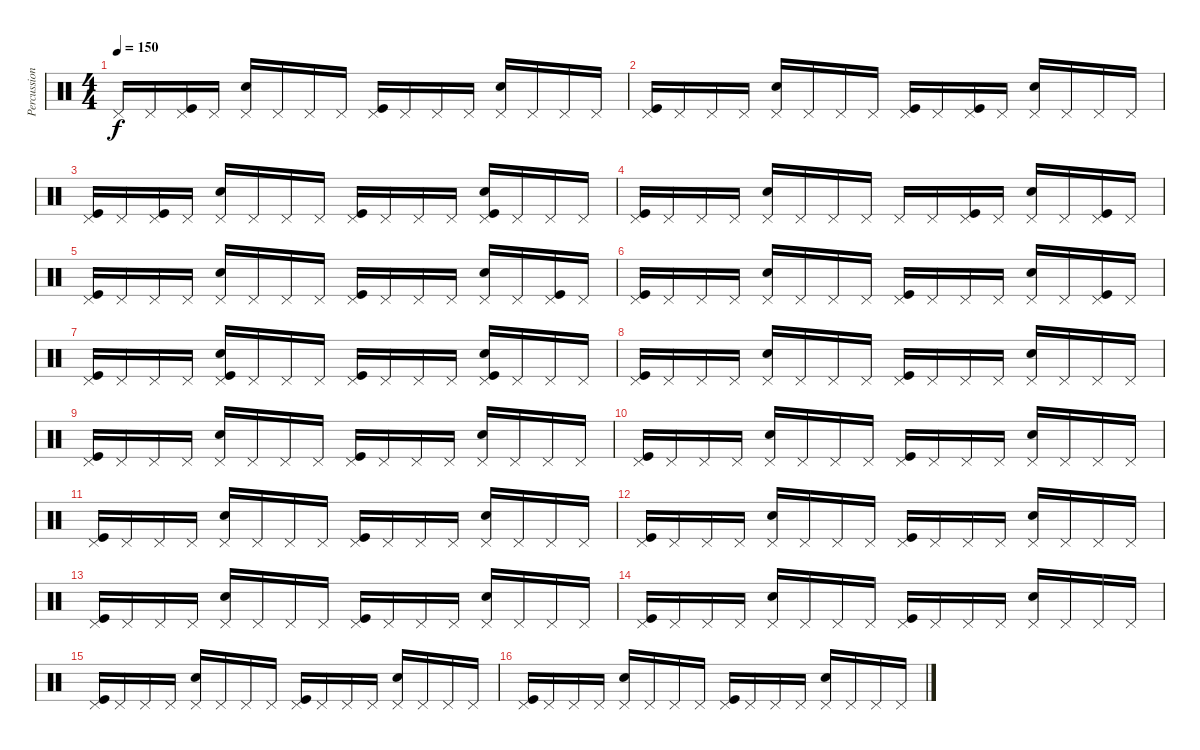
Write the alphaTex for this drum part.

\track ("Percussion" "Percussion") {instrument percussion}
\staff {score}
\articulation defaults
\ts (4 4)
\tempo 150
\clef neutral
\ks c "Pedal Hi-Hat (hit)".16{dy f} "Pedal Hi-Hat (hit)".16
("Pedal Hi-Hat (hit)" "Kick (hit)").16 "Pedal Hi-Hat (hit)".16 ("Pedal Hi-Hat (hit)" "Electric Snare (hit)").16 "Pedal Hi-Hat (hit)".16 "Pedal Hi-Hat (hit)".16 "Pedal Hi-Hat (hit)".16 ("Pedal Hi-Hat (hit)" "Kick (hit)").16 "Pedal Hi-Hat (hit)".16 "Pedal Hi-Hat (hit)".16 "Pedal Hi-Hat (hit)".16 ("Pedal Hi-Hat (hit)" "Electric Snare (hit)").16 "Pedal Hi-Hat (hit)".16 "Pedal Hi-Hat (hit)".16 "Pedal Hi-Hat (hit)".16 |
("Pedal Hi-Hat (hit)" "Kick (hit)").16 "Pedal Hi-Hat (hit)".16 "Pedal Hi-Hat (hit)".16 "Pedal Hi-Hat (hit)".16 ("Pedal Hi-Hat (hit)" "Electric Snare (hit)").16 "Pedal Hi-Hat (hit)".16 "Pedal Hi-Hat (hit)".16 "Pedal Hi-Hat (hit)".16 ("Pedal Hi-Hat (hit)" "Kick (hit)").16 "Pedal Hi-Hat (hit)".16 ("Pedal Hi-Hat (hit)" "Kick (hit)").16 "Pedal Hi-Hat (hit)".16 ("Pedal Hi-Hat (hit)" "Electric Snare (hit)").16 "Pedal Hi-Hat (hit)".16 "Pedal Hi-Hat (hit)".16 "Pedal Hi-Hat (hit)".16 |
("Pedal Hi-Hat (hit)" "Kick (hit)").16 "Pedal Hi-Hat (hit)".16 ("Pedal Hi-Hat (hit)" "Kick (hit)").16 "Pedal Hi-Hat (hit)".16 ("Pedal Hi-Hat (hit)" "Electric Snare (hit)").16 "Pedal Hi-Hat (hit)".16 "Pedal Hi-Hat (hit)".16 "Pedal Hi-Hat (hit)".16 ("Pedal Hi-Hat (hit)" "Kick (hit)").16 "Pedal Hi-Hat (hit)".16 "Pedal Hi-Hat (hit)".16 "Pedal Hi-Hat (hit)".16 ("Pedal Hi-Hat (hit)" "Electric Snare (hit)" "Kick (hit)").16 "Pedal Hi-Hat (hit)".16 "Pedal Hi-Hat (hit)".16 "Pedal Hi-Hat (hit)".16 |
("Pedal Hi-Hat (hit)" "Kick (hit)").16 "Pedal Hi-Hat (hit)".16 "Pedal Hi-Hat (hit)".16 "Pedal Hi-Hat (hit)".16 ("Pedal Hi-Hat (hit)" "Electric Snare (hit)").16 "Pedal Hi-Hat (hit)".16 "Pedal Hi-Hat (hit)".16 "Pedal Hi-Hat (hit)".16 "Pedal Hi-Hat (hit)".16 "Pedal Hi-Hat (hit)".16 ("Pedal Hi-Hat (hit)" "Kick (hit)").16 "Pedal Hi-Hat (hit)".16 ("Pedal Hi-Hat (hit)" "Electric Snare (hit)").16 "Pedal Hi-Hat (hit)".16 ("Pedal Hi-Hat (hit)" "Kick (hit)").16 "Pedal Hi-Hat (hit)".16 |
("Pedal Hi-Hat (hit)" "Kick (hit)").16 "Pedal Hi-Hat (hit)".16 "Pedal Hi-Hat (hit)".16 "Pedal Hi-Hat (hit)".16 ("Pedal Hi-Hat (hit)" "Electric Snare (hit)").16 "Pedal Hi-Hat (hit)".16 "Pedal Hi-Hat (hit)".16 "Pedal Hi-Hat (hit)".16 ("Pedal Hi-Hat (hit)" "Kick (hit)").16 "Pedal Hi-Hat (hit)".16 "Pedal Hi-Hat (hit)".16 "Pedal Hi-Hat (hit)".16 ("Pedal Hi-Hat (hit)" "Electric Snare (hit)").16 "Pedal Hi-Hat (hit)".16 ("Pedal Hi-Hat (hit)" "Kick (hit)").16 "Pedal Hi-Hat (hit)".16 |
("Pedal Hi-Hat (hit)" "Kick (hit)").16 "Pedal Hi-Hat (hit)".16 "Pedal Hi-Hat (hit)".16 "Pedal Hi-Hat (hit)".16 ("Pedal Hi-Hat (hit)" "Electric Snare (hit)").16 "Pedal Hi-Hat (hit)".16 "Pedal Hi-Hat (hit)".16 "Pedal Hi-Hat (hit)".16 ("Pedal Hi-Hat (hit)" "Kick (hit)").16 "Pedal Hi-Hat (hit)".16 "Pedal Hi-Hat (hit)".16 "Pedal Hi-Hat (hit)".16 ("Pedal Hi-Hat (hit)" "Electric Snare (hit)").16 "Pedal Hi-Hat (hit)".16 ("Pedal Hi-Hat (hit)" "Kick (hit)").16 "Pedal Hi-Hat (hit)".16 |
("Pedal Hi-Hat (hit)" "Kick (hit)").16 "Pedal Hi-Hat (hit)".16 "Pedal Hi-Hat (hit)".16 "Pedal Hi-Hat (hit)".16 ("Pedal Hi-Hat (hit)" "Electric Snare (hit)" "Kick (hit)").16 "Pedal Hi-Hat (hit)".16 "Pedal Hi-Hat (hit)".16 "Pedal Hi-Hat (hit)".16 ("Pedal Hi-Hat (hit)" "Kick (hit)").16 "Pedal Hi-Hat (hit)".16 "Pedal Hi-Hat (hit)".16 "Pedal Hi-Hat (hit)".16 ("Pedal Hi-Hat (hit)" "Electric Snare (hit)" "Kick (hit)").16 "Pedal Hi-Hat (hit)".16 "Pedal Hi-Hat (hit)".16 "Pedal Hi-Hat (hit)".16 |
("Pedal Hi-Hat (hit)" "Kick (hit)").16 "Pedal Hi-Hat (hit)".16 "Pedal Hi-Hat (hit)".16 "Pedal Hi-Hat (hit)".16 ("Pedal Hi-Hat (hit)" "Electric Snare (hit)").16 "Pedal Hi-Hat (hit)".16 "Pedal Hi-Hat (hit)".16 "Pedal Hi-Hat (hit)".16 ("Pedal Hi-Hat (hit)" "Kick (hit)").16 "Pedal Hi-Hat (hit)".16 "Pedal Hi-Hat (hit)".16 "Pedal Hi-Hat (hit)".16 ("Pedal Hi-Hat (hit)" "Electric Snare (hit)").16 "Pedal Hi-Hat (hit)".16 "Pedal Hi-Hat (hit)".16 "Pedal Hi-Hat (hit)".16 |
("Pedal Hi-Hat (hit)" "Kick (hit)").16 "Pedal Hi-Hat (hit)".16 "Pedal Hi-Hat (hit)".16 "Pedal Hi-Hat (hit)".16 ("Pedal Hi-Hat (hit)" "Electric Snare (hit)").16 "Pedal Hi-Hat (hit)".16 "Pedal Hi-Hat (hit)".16 "Pedal Hi-Hat (hit)".16 ("Pedal Hi-Hat (hit)" "Kick (hit)").16 "Pedal Hi-Hat (hit)".16 "Pedal Hi-Hat (hit)".16 "Pedal Hi-Hat (hit)".16 ("Pedal Hi-Hat (hit)" "Electric Snare (hit)").16 "Pedal Hi-Hat (hit)".16 "Pedal Hi-Hat (hit)".16 "Pedal Hi-Hat (hit)".16 |
("Pedal Hi-Hat (hit)" "Kick (hit)").16 "Pedal Hi-Hat (hit)".16 "Pedal Hi-Hat (hit)".16 "Pedal Hi-Hat (hit)".16 ("Pedal Hi-Hat (hit)" "Electric Snare (hit)").16 "Pedal Hi-Hat (hit)".16 "Pedal Hi-Hat (hit)".16 "Pedal Hi-Hat (hit)".16 ("Pedal Hi-Hat (hit)" "Kick (hit)").16 "Pedal Hi-Hat (hit)".16 "Pedal Hi-Hat (hit)".16 "Pedal Hi-Hat (hit)".16 ("Pedal Hi-Hat (hit)" "Electric Snare (hit)").16 "Pedal Hi-Hat (hit)".16 "Pedal Hi-Hat (hit)".16 "Pedal Hi-Hat (hit)".16 |
("Pedal Hi-Hat (hit)" "Kick (hit)").16 "Pedal Hi-Hat (hit)".16 "Pedal Hi-Hat (hit)".16 "Pedal Hi-Hat (hit)".16 ("Pedal Hi-Hat (hit)" "Electric Snare (hit)").16 "Pedal Hi-Hat (hit)".16 "Pedal Hi-Hat (hit)".16 "Pedal Hi-Hat (hit)".16 ("Pedal Hi-Hat (hit)" "Kick (hit)").16 "Pedal Hi-Hat (hit)".16 "Pedal Hi-Hat (hit)".16 "Pedal Hi-Hat (hit)".16 ("Pedal Hi-Hat (hit)" "Electric Snare (hit)").16 "Pedal Hi-Hat (hit)".16 "Pedal Hi-Hat (hit)".16 "Pedal Hi-Hat (hit)".16 |
("Pedal Hi-Hat (hit)" "Kick (hit)").16 "Pedal Hi-Hat (hit)".16 "Pedal Hi-Hat (hit)".16 "Pedal Hi-Hat (hit)".16 ("Pedal Hi-Hat (hit)" "Electric Snare (hit)").16 "Pedal Hi-Hat (hit)".16 "Pedal Hi-Hat (hit)".16 "Pedal Hi-Hat (hit)".16 ("Pedal Hi-Hat (hit)" "Kick (hit)").16 "Pedal Hi-Hat (hit)".16 "Pedal Hi-Hat (hit)".16 "Pedal Hi-Hat (hit)".16 ("Pedal Hi-Hat (hit)" "Electric Snare (hit)").16 "Pedal Hi-Hat (hit)".16 "Pedal Hi-Hat (hit)".16 "Pedal Hi-Hat (hit)".16 |
("Pedal Hi-Hat (hit)" "Kick (hit)").16 "Pedal Hi-Hat (hit)".16 "Pedal Hi-Hat (hit)".16 "Pedal Hi-Hat (hit)".16 ("Pedal Hi-Hat (hit)" "Electric Snare (hit)").16 "Pedal Hi-Hat (hit)".16 "Pedal Hi-Hat (hit)".16 "Pedal Hi-Hat (hit)".16 ("Pedal Hi-Hat (hit)" "Kick (hit)").16 "Pedal Hi-Hat (hit)".16 "Pedal Hi-Hat (hit)".16 "Pedal Hi-Hat (hit)".16 ("Pedal Hi-Hat (hit)" "Electric Snare (hit)").16 "Pedal Hi-Hat (hit)".16 "Pedal Hi-Hat (hit)".16 "Pedal Hi-Hat (hit)".16 |
("Pedal Hi-Hat (hit)" "Kick (hit)").16 "Pedal Hi-Hat (hit)".16 "Pedal Hi-Hat (hit)".16 "Pedal Hi-Hat (hit)".16 ("Pedal Hi-Hat (hit)" "Electric Snare (hit)").16 "Pedal Hi-Hat (hit)".16 "Pedal Hi-Hat (hit)".16 "Pedal Hi-Hat (hit)".16 ("Pedal Hi-Hat (hit)" "Kick (hit)").16 "Pedal Hi-Hat (hit)".16 "Pedal Hi-Hat (hit)".16 "Pedal Hi-Hat (hit)".16 ("Pedal Hi-Hat (hit)" "Electric Snare (hit)").16 "Pedal Hi-Hat (hit)".16 "Pedal Hi-Hat (hit)".16 "Pedal Hi-Hat (hit)".16 |
("Pedal Hi-Hat (hit)" "Kick (hit)").16 "Pedal Hi-Hat (hit)".16 "Pedal Hi-Hat (hit)".16 "Pedal Hi-Hat (hit)".16 ("Pedal Hi-Hat (hit)" "Electric Snare (hit)").16 "Pedal Hi-Hat (hit)".16 "Pedal Hi-Hat (hit)".16 "Pedal Hi-Hat (hit)".16 ("Pedal Hi-Hat (hit)" "Kick (hit)").16 "Pedal Hi-Hat (hit)".16 "Pedal Hi-Hat (hit)".16 "Pedal Hi-Hat (hit)".16 ("Pedal Hi-Hat (hit)" "Electric Snare (hit)").16 "Pedal Hi-Hat (hit)".16 "Pedal Hi-Hat (hit)".16 "Pedal Hi-Hat (hit)".16 |
("Pedal Hi-Hat (hit)" "Kick (hit)").16 "Pedal Hi-Hat (hit)".16 "Pedal Hi-Hat (hit)".16 "Pedal Hi-Hat (hit)".16 ("Pedal Hi-Hat (hit)" "Electric Snare (hit)").16 "Pedal Hi-Hat (hit)".16 "Pedal Hi-Hat (hit)".16 "Pedal Hi-Hat (hit)".16 ("Pedal Hi-Hat (hit)" "Kick (hit)").16 "Pedal Hi-Hat (hit)".16 "Pedal Hi-Hat (hit)".16 "Pedal Hi-Hat (hit)".16 ("Pedal Hi-Hat (hit)" "Electric Snare (hit)").16 "Pedal Hi-Hat (hit)".16 "Pedal Hi-Hat (hit)".16 "Pedal Hi-Hat (hit)".16
